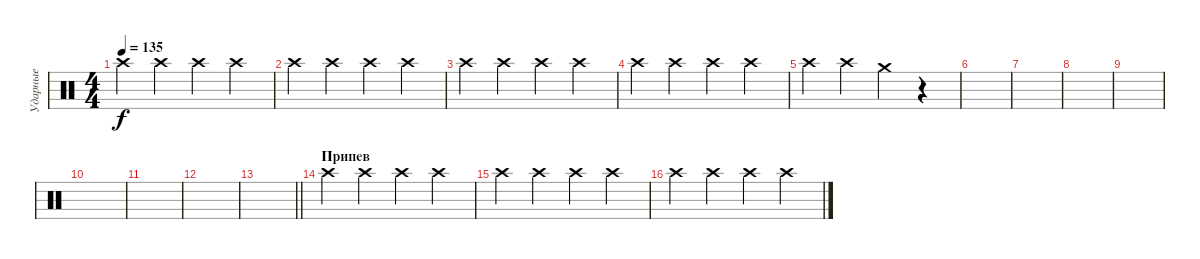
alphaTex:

\track ("Ударные" "Ударные") {instrument percussion}
\staff {score}
\articulation defaults
\ts (4 4)
\tempo 135
\clef neutral
\ks c "Crash high (hit)".4{dy f} "Crash high (hit)".4 "Crash high (hit)".4 "Crash high (hit)".4
|
"Crash high (hit)".4 "Crash high (hit)".4 "Crash high (hit)".4 "Crash high (hit)".4 |
"Crash high (hit)".4 "Crash high (hit)".4 "Crash high (hit)".4 "Crash high (hit)".4 |
"Crash high (hit)".4 "Crash high (hit)".4 "Crash high (hit)".4 "Crash high (hit)".4 |
"Crash high (hit)".4 "Crash high (hit)".4 "Crash medium (hit)".4 r.4 |
|
|
|
|
|
|
|
\barLineRight lightlight
|
\section ("" "Припев")
"Crash high (hit)".4 "Crash high (hit)".4 "Crash high (hit)".4 "Crash high (hit)".4 |
"Crash high (hit)".4 "Crash high (hit)".4 "Crash high (hit)".4 "Crash high (hit)".4 |
"Crash high (hit)".4 "Crash high (hit)".4 "Crash high (hit)".4 "Crash high (hit)".4
